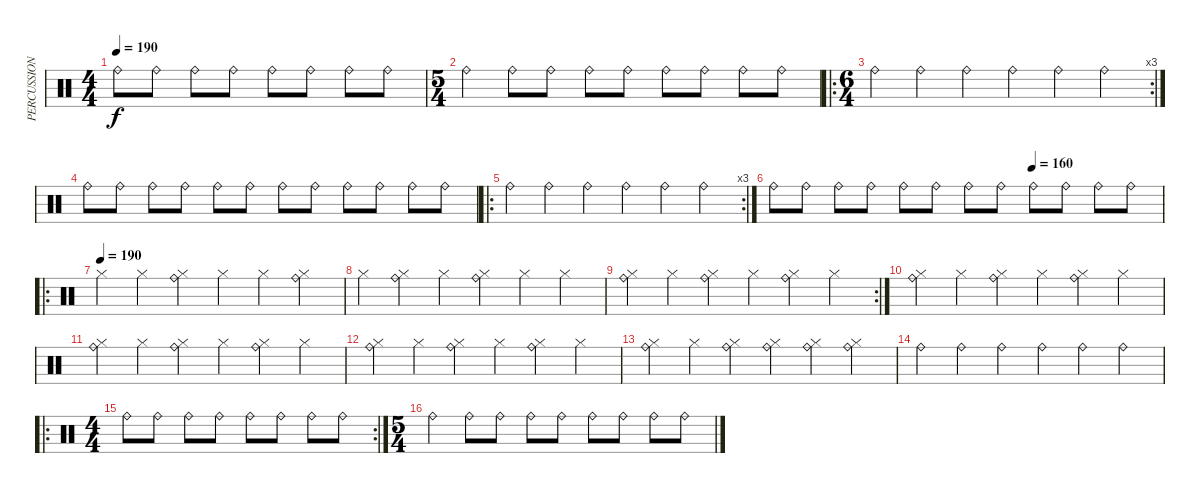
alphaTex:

\track ("PERCUSSION" "PERCUSSION") {instrument percussion}
\staff {score}
\articulation defaults
\ts (4 4)
\tempo 190
\clef neutral
\ks c "Ride (bell)".8{dy f} "Ride (bell)".8 "Ride (bell)".8 "Ride (bell)".8 "Ride (bell)".8 "Ride (bell)".8 "Ride (bell)".8 "Ride (bell)".8
|
\ts (5 4)
"Ride (bell)".4 "Ride (bell)".8 "Ride (bell)".8 "Ride (bell)".8 "Ride (bell)".8 "Ride (bell)".8 "Ride (bell)".8 "Ride (bell)".8 "Ride (bell)".8 |
\ro
\rc 3
\ts (6 4)
"Ride (bell)".4 "Ride (bell)".4 "Ride (bell)".4 "Ride (bell)".4 "Ride (bell)".4 "Ride (bell)".4 |
"Ride (bell)".8 "Ride (bell)".8 "Ride (bell)".8 "Ride (bell)".8 "Ride (bell)".8 "Ride (bell)".8 "Ride (bell)".8 "Ride (bell)".8 "Ride (bell)".8 "Ride (bell)".8 "Ride (bell)".8 "Ride (bell)".8 |
\ro
\rc 3 "Ride (bell)".4 "Ride (bell)".4 "Ride (bell)".4 "Ride (bell)".4 "Ride (bell)".4 "Ride (bell)".4
|
\tempo (160 0.6666666666666666)
"Ride (bell)".8 "Ride (bell)".8 "Ride (bell)".8 "Ride (bell)".8 "Ride (bell)".8 "Ride (bell)".8 "Ride (bell)".8 "Ride (bell)".8 "Ride (bell)".8 "Ride (bell)".8 "Ride (bell)".8 "Ride (bell)".8 |
\ro
\tempo (190)
"Hi-Hat (closed)".4 "Hi-Hat (closed)".4 ("Hi-Hat (closed)" "Ride (bell)").4 "Hi-Hat (closed)".4 "Hi-Hat (closed)".4 ("Hi-Hat (closed)" "Ride (bell)").4 |
"Hi-Hat (closed)".4 ("Hi-Hat (closed)" "Ride (bell)").4 "Hi-Hat (closed)".4 ("Hi-Hat (closed)" "Ride (bell)").4 "Hi-Hat (closed)".4 "Hi-Hat (closed)".4 |
\rc 2
("Hi-Hat (closed)" "Ride (bell)").4 "Hi-Hat (closed)".4 ("Hi-Hat (closed)" "Ride (bell)").4 "Hi-Hat (closed)".4 ("Hi-Hat (closed)" "Ride (bell)").4 "Hi-Hat (closed)".4 |
("Hi-Hat (closed)" "Ride (bell)").4 "Hi-Hat (closed)".4 ("Hi-Hat (closed)" "Ride (bell)").4 "Hi-Hat (closed)".4 ("Hi-Hat (closed)" "Ride (bell)").4 "Hi-Hat (closed)".4 |
("Hi-Hat (closed)" "Ride (bell)").4 "Hi-Hat (closed)".4 ("Hi-Hat (closed)" "Ride (bell)").4 "Hi-Hat (closed)".4 ("Hi-Hat (closed)" "Ride (bell)").4 "Hi-Hat (closed)".4 |
("Hi-Hat (closed)" "Ride (bell)").4 "Hi-Hat (closed)".4 ("Hi-Hat (closed)" "Ride (bell)").4 "Hi-Hat (closed)".4 ("Hi-Hat (closed)" "Ride (bell)").4 "Hi-Hat (closed)".4 |
("Hi-Hat (closed)" "Ride (bell)").4 "Hi-Hat (closed)".4 ("Hi-Hat (closed)" "Ride (bell)").4 ("Hi-Hat (closed)" "Ride (bell)").4 ("Hi-Hat (closed)" "Ride (bell)").4 ("Hi-Hat (closed)" "Ride (bell)").4 |
"Ride (bell)".4 "Ride (bell)".4 "Ride (bell)".4 "Ride (bell)".4 "Ride (bell)".4 "Ride (bell)".4 |
\ro
\rc 2
\ts (4 4)
"Ride (bell)".8 "Ride (bell)".8 "Ride (bell)".8 "Ride (bell)".8 "Ride (bell)".8 "Ride (bell)".8 "Ride (bell)".8 "Ride (bell)".8 |
\ts (5 4)
"Ride (bell)".4 "Ride (bell)".8 "Ride (bell)".8 "Ride (bell)".8 "Ride (bell)".8 "Ride (bell)".8 "Ride (bell)".8 "Ride (bell)".8 "Ride (bell)".8
